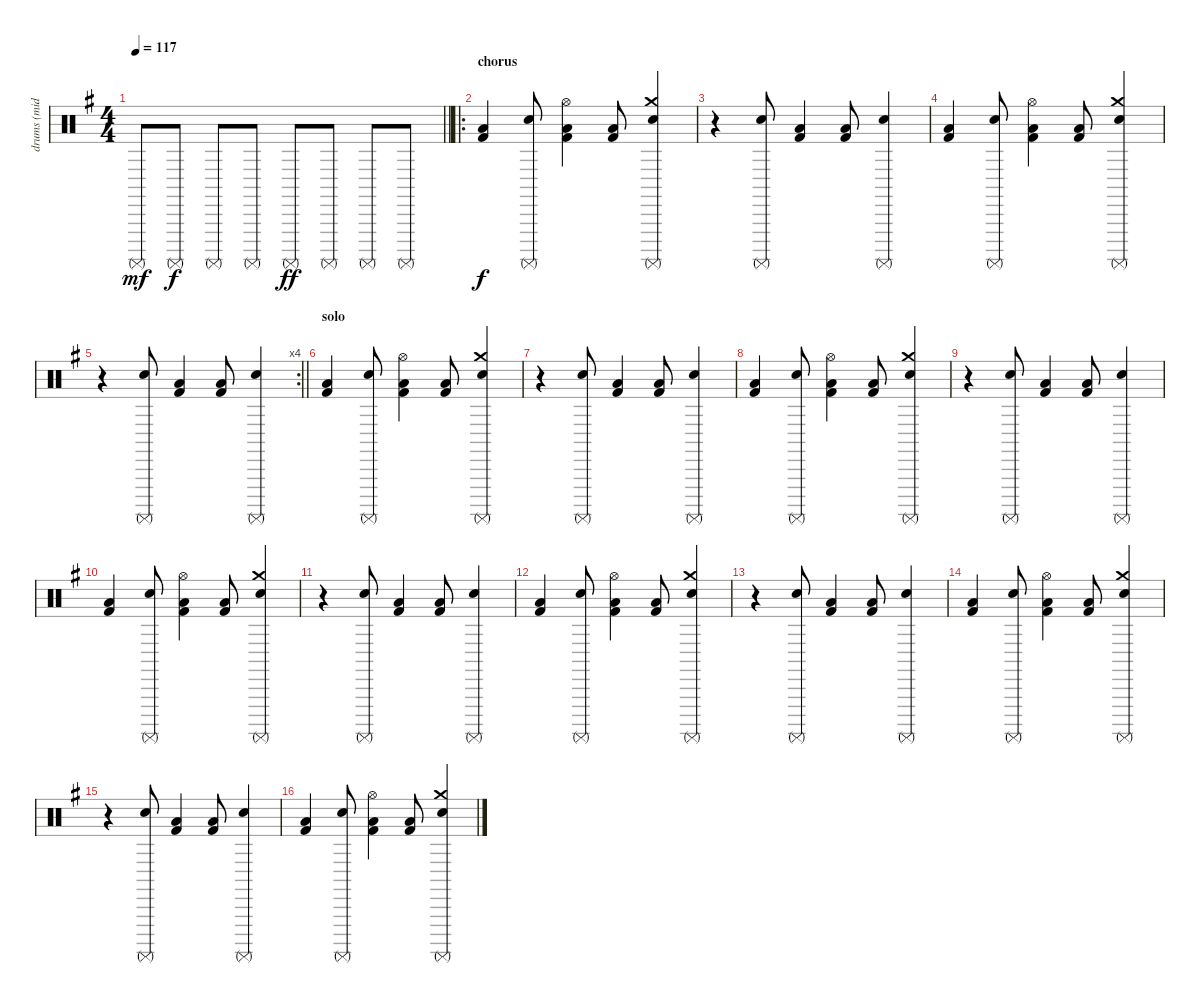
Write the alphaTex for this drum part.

\track ("drums (midi sounds better)" "drums (mid") {instrument percussion}
\staff {score}
\articulation defaults
\ts (4 4)
\tempo 117
\clef neutral
\barLineRight lightlight
\ks g "Surdo (mute)".8{dy mf} "Surdo (mute)".8{dy f} "Surdo (mute)".8 "Surdo (mute)".8 "Surdo (mute)".8{dy ff} "Surdo (mute)".8 "Surdo (mute)".8 "Surdo (mute)".8
|
\ro
\section ("" "chorus")
("Kick (hit) 2" "Low Floor Tom (hit)").4{dy f} ("Snare (hit) 2" "Surdo (mute)").8 ("Kick (hit) 2" "Low Floor Tom (hit)" "Hi-Hat (open)").4 ("Kick (hit) 2" "Low Floor Tom (hit)").8 ("Snare (hit) 2" "Surdo (mute)" "Crash medium (hit)").4 |
r.4 ("Snare (hit) 2" "Surdo (mute)").8 ("Kick (hit) 2" "Low Floor Tom (hit)").4 ("Kick (hit) 2" "Low Floor Tom (hit)").8 ("Snare (hit) 2" "Surdo (mute)").4 |
("Kick (hit) 2" "Low Floor Tom (hit)").4 ("Snare (hit) 2" "Surdo (mute)").8 ("Kick (hit) 2" "Low Floor Tom (hit)" "Hi-Hat (open)").4 ("Kick (hit) 2" "Low Floor Tom (hit)").8 ("Snare (hit) 2" "Surdo (mute)" "Crash medium (hit)").4 |
\rc 4
\barLineRight lightlight
r.4 ("Snare (hit) 2" "Surdo (mute)").8 ("Kick (hit) 2" "Low Floor Tom (hit)").4 ("Kick (hit) 2" "Low Floor Tom (hit)").8 ("Snare (hit) 2" "Surdo (mute)").4 |
\section ("" "solo")
("Kick (hit) 2" "Low Floor Tom (hit)").4 ("Snare (hit) 2" "Surdo (mute)").8 ("Kick (hit) 2" "Low Floor Tom (hit)" "Hi-Hat (open)").4 ("Kick (hit) 2" "Low Floor Tom (hit)").8 ("Snare (hit) 2" "Surdo (mute)" "Crash medium (hit)").4 |
r.4 ("Snare (hit) 2" "Surdo (mute)").8 ("Kick (hit) 2" "Low Floor Tom (hit)").4 ("Kick (hit) 2" "Low Floor Tom (hit)").8 ("Snare (hit) 2" "Surdo (mute)").4 |
("Kick (hit) 2" "Low Floor Tom (hit)").4 ("Snare (hit) 2" "Surdo (mute)").8 ("Kick (hit) 2" "Low Floor Tom (hit)" "Hi-Hat (open)").4 ("Kick (hit) 2" "Low Floor Tom (hit)").8 ("Snare (hit) 2" "Surdo (mute)" "Crash medium (hit)").4 |
r.4 ("Snare (hit) 2" "Surdo (mute)").8 ("Kick (hit) 2" "Low Floor Tom (hit)").4 ("Kick (hit) 2" "Low Floor Tom (hit)").8 ("Snare (hit) 2" "Surdo (mute)").4 |
("Kick (hit) 2" "Low Floor Tom (hit)").4 ("Snare (hit) 2" "Surdo (mute)").8 ("Kick (hit) 2" "Low Floor Tom (hit)" "Hi-Hat (open)").4 ("Kick (hit) 2" "Low Floor Tom (hit)").8 ("Snare (hit) 2" "Surdo (mute)" "Crash medium (hit)").4 |
r.4 ("Snare (hit) 2" "Surdo (mute)").8 ("Kick (hit) 2" "Low Floor Tom (hit)").4 ("Kick (hit) 2" "Low Floor Tom (hit)").8 ("Snare (hit) 2" "Surdo (mute)").4 |
("Kick (hit) 2" "Low Floor Tom (hit)").4 ("Snare (hit) 2" "Surdo (mute)").8 ("Kick (hit) 2" "Low Floor Tom (hit)" "Hi-Hat (open)").4 ("Kick (hit) 2" "Low Floor Tom (hit)").8 ("Snare (hit) 2" "Surdo (mute)" "Crash medium (hit)").4 |
r.4 ("Snare (hit) 2" "Surdo (mute)").8 ("Kick (hit) 2" "Low Floor Tom (hit)").4 ("Kick (hit) 2" "Low Floor Tom (hit)").8 ("Snare (hit) 2" "Surdo (mute)").4 |
("Kick (hit) 2" "Low Floor Tom (hit)").4 ("Snare (hit) 2" "Surdo (mute)").8 ("Kick (hit) 2" "Low Floor Tom (hit)" "Hi-Hat (open)").4 ("Kick (hit) 2" "Low Floor Tom (hit)").8 ("Snare (hit) 2" "Surdo (mute)" "Crash medium (hit)").4 |
r.4 ("Snare (hit) 2" "Surdo (mute)").8 ("Kick (hit) 2" "Low Floor Tom (hit)").4 ("Kick (hit) 2" "Low Floor Tom (hit)").8 ("Snare (hit) 2" "Surdo (mute)").4 |
("Kick (hit) 2" "Low Floor Tom (hit)").4 ("Snare (hit) 2" "Surdo (mute)").8 ("Kick (hit) 2" "Low Floor Tom (hit)" "Hi-Hat (open)").4 ("Kick (hit) 2" "Low Floor Tom (hit)").8 ("Snare (hit) 2" "Surdo (mute)" "Crash medium (hit)").4
